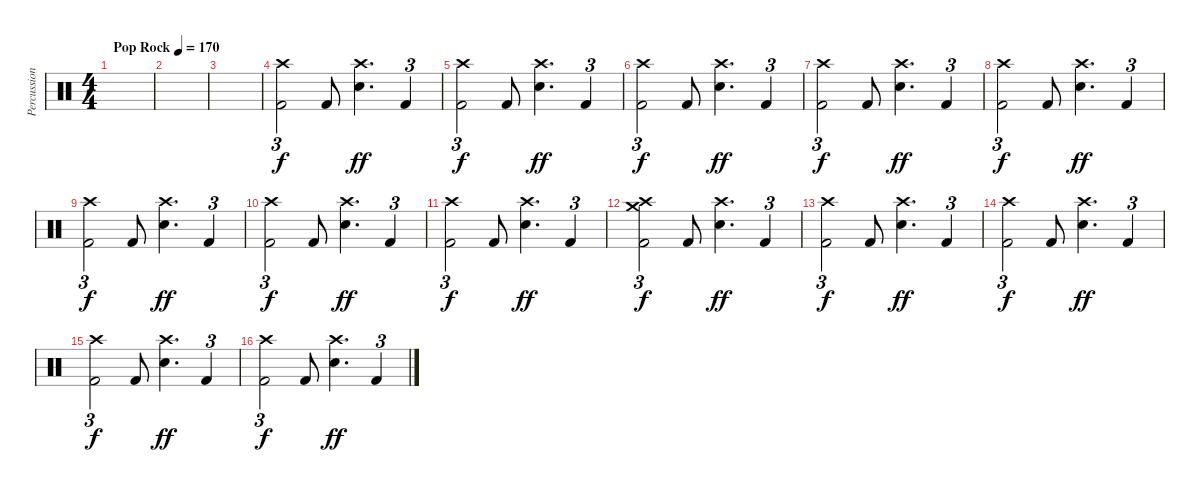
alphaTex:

\track ("Percussion" "Percussion") {instrument percussion bank 127}
\staff {score}
\articulation defaults
\ts (4 4)
\tempo (170 "Pop Rock")
\clef neutral
\ks c
|
|
|
("Crash high (hit)" "Kick (hit) 2").2{tu (3 2)} "Kick (hit) 2".8 ("Crash high (hit)" "Snare (hit) 2").4{d dy ff} "Kick (hit) 2".4{tu (3 2)} |
("Crash high (hit)" "Kick (hit) 2").2{tu (3 2) dy f} "Kick (hit) 2".8 ("Crash high (hit)" "Snare (hit) 2").4{d dy ff} "Kick (hit) 2".4{tu (3 2)} |
("Crash high (hit)" "Kick (hit) 2").2{tu (3 2) dy f} "Kick (hit) 2".8 ("Crash high (hit)" "Snare (hit) 2").4{d dy ff} "Kick (hit) 2".4{tu (3 2)} |
("Crash high (hit)" "Kick (hit) 2").2{tu (3 2) dy f} "Kick (hit) 2".8 ("Crash high (hit)" "Snare (hit) 2").4{d dy ff} "Kick (hit) 2".4{tu (3 2)} |
("Crash high (hit)" "Kick (hit) 2").2{tu (3 2) dy f} "Kick (hit) 2".8 ("Crash high (hit)" "Snare (hit) 2").4{d dy ff} "Kick (hit) 2".4{tu (3 2)} |
("Crash high (hit)" "Kick (hit) 2").2{tu (3 2) dy f} "Kick (hit) 2".8 ("Crash high (hit)" "Snare (hit) 2").4{d dy ff} "Kick (hit) 2".4{tu (3 2)} |
("Crash high (hit)" "Kick (hit) 2").2{tu (3 2) dy f} "Kick (hit) 2".8 ("Crash high (hit)" "Snare (hit) 2").4{d dy ff} "Kick (hit) 2".4{tu (3 2)} |
("Crash high (hit)" "Kick (hit) 2").2{tu (3 2) dy f} "Kick (hit) 2".8 ("Crash high (hit)" "Snare (hit) 2").4{d dy ff} "Kick (hit) 2".4{tu (3 2)} |
("Crash high (hit)" "Kick (hit) 2" "Crash medium (hit)").2{tu (3 2) dy f} "Kick (hit) 2".8 ("Crash high (hit)" "Snare (hit) 2").4{d dy ff} "Kick (hit) 2".4{tu (3 2)} |
("Crash high (hit)" "Kick (hit) 2").2{tu (3 2) dy f} "Kick (hit) 2".8 ("Crash high (hit)" "Snare (hit) 2").4{d dy ff} "Kick (hit) 2".4{tu (3 2)} |
("Crash high (hit)" "Kick (hit) 2").2{tu (3 2) dy f} "Kick (hit) 2".8 ("Crash high (hit)" "Snare (hit) 2").4{d dy ff} "Kick (hit) 2".4{tu (3 2)} |
("Crash high (hit)" "Kick (hit) 2").2{tu (3 2) dy f} "Kick (hit) 2".8 ("Crash high (hit)" "Snare (hit) 2").4{d dy ff} "Kick (hit) 2".4{tu (3 2)} |
("Crash high (hit)" "Kick (hit) 2").2{tu (3 2) dy f} "Kick (hit) 2".8 ("Crash high (hit)" "Snare (hit) 2").4{d dy ff} "Kick (hit) 2".4{tu (3 2)}
